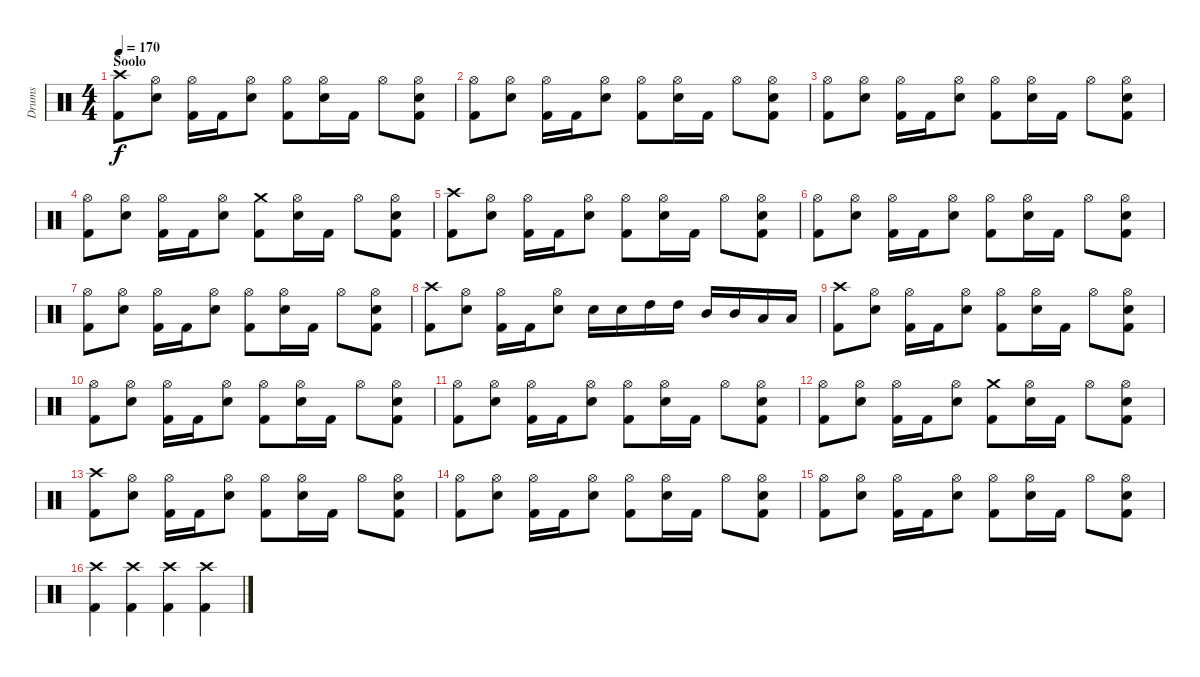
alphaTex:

\track ("Drums" "Drums") {instrument percussion}
\staff {score}
\articulation defaults
\ts (4 4)
\section ("" "Soolo")
\tempo 170
\clef neutral
\ks c
("Crash high (hit)" "Kick (hit) 2").8{dy f} ("Hi-Hat (open)" "Electric Snare (hit)").8 ("Hi-Hat (open)" "Kick (hit) 2").16 "Kick (hit) 2".16 ("Hi-Hat (open)" "Electric Snare (hit)").8 ("Hi-Hat (open)" "Kick (hit) 2").8 ("Hi-Hat (open)" "Electric Snare (hit)").16 "Kick (hit) 2".16 "Hi-Hat (open)".8 ("Hi-Hat (open)" "Electric Snare (hit)" "Kick (hit) 2").8 |
("Hi-Hat (open)" "Kick (hit) 2").8 ("Hi-Hat (open)" "Electric Snare (hit)").8 ("Hi-Hat (open)" "Kick (hit) 2").16 "Kick (hit) 2".16 ("Hi-Hat (open)" "Electric Snare (hit)").8 ("Hi-Hat (open)" "Kick (hit) 2").8 ("Hi-Hat (open)" "Electric Snare (hit)").16 "Kick (hit) 2".16 "Hi-Hat (open)".8 ("Hi-Hat (open)" "Electric Snare (hit)" "Kick (hit) 2").8 |
("Hi-Hat (open)" "Kick (hit) 2").8 ("Hi-Hat (open)" "Electric Snare (hit)").8 ("Hi-Hat (open)" "Kick (hit) 2").16 "Kick (hit) 2".16 ("Hi-Hat (open)" "Electric Snare (hit)").8 ("Hi-Hat (open)" "Kick (hit) 2").8 ("Hi-Hat (open)" "Electric Snare (hit)").16 "Kick (hit) 2".16 "Hi-Hat (open)".8 ("Hi-Hat (open)" "Electric Snare (hit)" "Kick (hit) 2").8 |
("Hi-Hat (open)" "Kick (hit) 2").8 ("Hi-Hat (open)" "Electric Snare (hit)").8 ("Hi-Hat (open)" "Kick (hit) 2").16 "Kick (hit) 2".16 ("Hi-Hat (open)" "Electric Snare (hit)").8 ("Crash medium (hit)" "Kick (hit) 2").8 ("Hi-Hat (open)" "Electric Snare (hit)").16 "Kick (hit) 2".16 "Hi-Hat (open)".8 ("Hi-Hat (open)" "Electric Snare (hit)" "Kick (hit) 2").8 |
("Crash high (hit)" "Kick (hit) 2").8 ("Hi-Hat (open)" "Electric Snare (hit)").8 ("Hi-Hat (open)" "Kick (hit) 2").16 "Kick (hit) 2".16 ("Hi-Hat (open)" "Electric Snare (hit)").8 ("Hi-Hat (open)" "Kick (hit) 2").8 ("Hi-Hat (open)" "Electric Snare (hit)").16 "Kick (hit) 2".16 "Hi-Hat (open)".8 ("Hi-Hat (open)" "Electric Snare (hit)" "Kick (hit) 2").8 |
("Hi-Hat (open)" "Kick (hit) 2").8 ("Hi-Hat (open)" "Electric Snare (hit)").8 ("Hi-Hat (open)" "Kick (hit) 2").16 "Kick (hit) 2".16 ("Hi-Hat (open)" "Electric Snare (hit)").8 ("Hi-Hat (open)" "Kick (hit) 2").8 ("Hi-Hat (open)" "Electric Snare (hit)").16 "Kick (hit) 2".16 "Hi-Hat (open)".8 ("Hi-Hat (open)" "Electric Snare (hit)" "Kick (hit) 2").8 |
("Hi-Hat (open)" "Kick (hit) 2").8 ("Hi-Hat (open)" "Electric Snare (hit)").8 ("Hi-Hat (open)" "Kick (hit) 2").16 "Kick (hit) 2".16 ("Hi-Hat (open)" "Electric Snare (hit)").8 ("Hi-Hat (open)" "Kick (hit) 2").8 ("Hi-Hat (open)" "Electric Snare (hit)").16 "Kick (hit) 2".16 "Hi-Hat (open)".8 ("Hi-Hat (open)" "Electric Snare (hit)" "Kick (hit) 2").8 |
("Crash high (hit)" "Kick (hit) 2").8 ("Hi-Hat (open)" "Electric Snare (hit)").8 ("Hi-Hat (open)" "Kick (hit) 2").16 "Kick (hit) 2".16 ("Hi-Hat (open)" "Electric Snare (hit)").8 "Electric Snare (hit)".16 "Electric Snare (hit)".16 "High Tom (hit)".16 "High Tom (hit)".16 "Mid Tom (hit)".16 "Mid Tom (hit)".16 "Low Tom (hit)".16 "Low Tom (hit)".16 |
("Crash high (hit)" "Kick (hit) 2").8 ("Hi-Hat (open)" "Electric Snare (hit)").8 ("Hi-Hat (open)" "Kick (hit) 2").16 "Kick (hit) 2".16 ("Hi-Hat (open)" "Electric Snare (hit)").8 ("Hi-Hat (open)" "Kick (hit) 2").8 ("Hi-Hat (open)" "Electric Snare (hit)").16 "Kick (hit) 2".16 "Hi-Hat (open)".8 ("Hi-Hat (open)" "Electric Snare (hit)" "Kick (hit) 2").8 |
("Hi-Hat (open)" "Kick (hit) 2").8 ("Hi-Hat (open)" "Electric Snare (hit)").8 ("Hi-Hat (open)" "Kick (hit) 2").16 "Kick (hit) 2".16 ("Hi-Hat (open)" "Electric Snare (hit)").8 ("Hi-Hat (open)" "Kick (hit) 2").8 ("Hi-Hat (open)" "Electric Snare (hit)").16 "Kick (hit) 2".16 "Hi-Hat (open)".8 ("Hi-Hat (open)" "Electric Snare (hit)" "Kick (hit) 2").8 |
("Hi-Hat (open)" "Kick (hit) 2").8 ("Hi-Hat (open)" "Electric Snare (hit)").8 ("Hi-Hat (open)" "Kick (hit) 2").16 "Kick (hit) 2".16 ("Hi-Hat (open)" "Electric Snare (hit)").8 ("Hi-Hat (open)" "Kick (hit) 2").8 ("Hi-Hat (open)" "Electric Snare (hit)").16 "Kick (hit) 2".16 "Hi-Hat (open)".8 ("Hi-Hat (open)" "Electric Snare (hit)" "Kick (hit) 2").8 |
("Hi-Hat (open)" "Kick (hit) 2").8 ("Hi-Hat (open)" "Electric Snare (hit)").8 ("Hi-Hat (open)" "Kick (hit) 2").16 "Kick (hit) 2".16 ("Hi-Hat (open)" "Electric Snare (hit)").8 ("Crash medium (hit)" "Kick (hit) 2").8 ("Hi-Hat (open)" "Electric Snare (hit)").16 "Kick (hit) 2".16 "Hi-Hat (open)".8 ("Hi-Hat (open)" "Electric Snare (hit)" "Kick (hit) 2").8 |
("Crash high (hit)" "Kick (hit) 2").8 ("Hi-Hat (open)" "Electric Snare (hit)").8 ("Hi-Hat (open)" "Kick (hit) 2").16 "Kick (hit) 2".16 ("Hi-Hat (open)" "Electric Snare (hit)").8 ("Hi-Hat (open)" "Kick (hit) 2").8 ("Hi-Hat (open)" "Electric Snare (hit)").16 "Kick (hit) 2".16 "Hi-Hat (open)".8 ("Hi-Hat (open)" "Electric Snare (hit)" "Kick (hit) 2").8 |
("Hi-Hat (open)" "Kick (hit) 2").8 ("Hi-Hat (open)" "Electric Snare (hit)").8 ("Hi-Hat (open)" "Kick (hit) 2").16 "Kick (hit) 2".16 ("Hi-Hat (open)" "Electric Snare (hit)").8 ("Hi-Hat (open)" "Kick (hit) 2").8 ("Hi-Hat (open)" "Electric Snare (hit)").16 "Kick (hit) 2".16 "Hi-Hat (open)".8 ("Hi-Hat (open)" "Electric Snare (hit)" "Kick (hit) 2").8 |
("Hi-Hat (open)" "Kick (hit) 2").8 ("Hi-Hat (open)" "Electric Snare (hit)").8 ("Hi-Hat (open)" "Kick (hit) 2").16 "Kick (hit) 2".16 ("Hi-Hat (open)" "Electric Snare (hit)").8 ("Hi-Hat (open)" "Kick (hit) 2").8 ("Hi-Hat (open)" "Electric Snare (hit)").16 "Kick (hit) 2".16 "Hi-Hat (open)".8 ("Hi-Hat (open)" "Electric Snare (hit)" "Kick (hit) 2").8 |
("Crash high (hit)" "Kick (hit) 2").4 ("Crash high (hit)" "Kick (hit) 2").4 ("Crash high (hit)" "Kick (hit) 2").4 ("Crash high (hit)" "Kick (hit) 2").4
